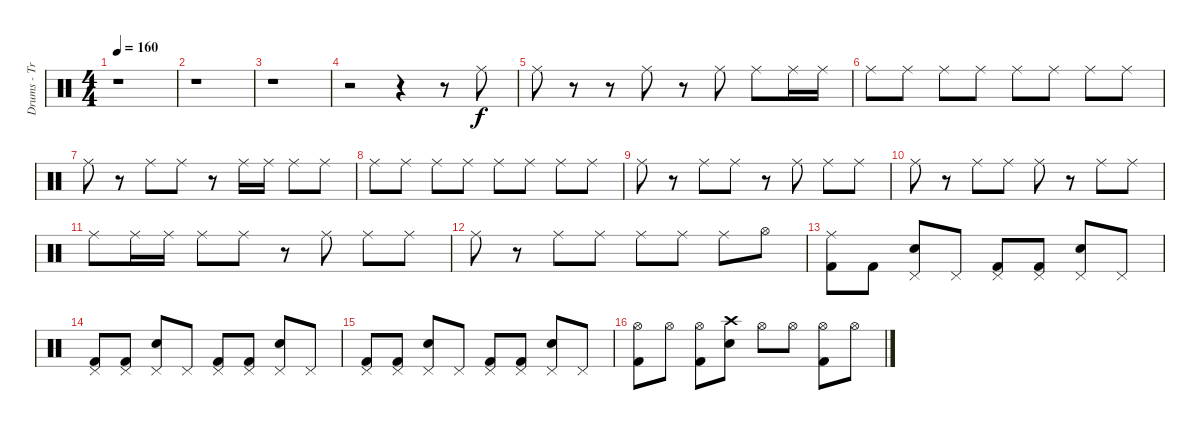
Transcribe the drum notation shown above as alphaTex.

\track ("Drums - Travis Barker" "Drums - Tr") {instrument percussion}
\staff {score}
\articulation defaults
\ts (4 4)
\tempo 160
\clef neutral
\ks c
r.1{dy f} |
r.1 |
r.1 |
r.2 r.4 r.8 "Ride (middle)".8 |
"Ride (middle)".8 r.8 r.8 "Ride (middle)".8 r.8 "Ride (middle)".8 "Ride (middle)".8 "Ride (middle)".16 "Ride (middle)".16 |
"Ride (middle)".8 "Ride (middle)".8 "Ride (middle)".8 "Ride (middle)".8 "Ride (middle)".8 "Ride (middle)".8 "Ride (middle)".8 "Ride (middle)".8 |
"Ride (middle)".8 r.8 "Ride (middle)".8 "Ride (middle)".8 r.8 "Ride (middle)".16 "Ride (middle)".16 "Ride (middle)".8 "Ride (middle)".8 |
"Ride (middle)".8 "Ride (middle)".8 "Ride (middle)".8 "Ride (middle)".8 "Ride (middle)".8 "Ride (middle)".8 "Ride (middle)".8 "Ride (middle)".8 |
"Ride (middle)".8 r.8 "Ride (middle)".8 "Ride (middle)".8 r.8 "Ride (middle)".8 "Ride (middle)".8 "Ride (middle)".8 |
"Ride (middle)".8 r.8 "Ride (middle)".8 "Ride (middle)".8 "Ride (middle)".8 r.8 "Ride (middle)".8 "Ride (middle)".8 |
"Ride (middle)".8 "Ride (middle)".16 "Ride (middle)".16 "Ride (middle)".8 "Ride (middle)".8 r.8 "Ride (middle)".8 "Ride (middle)".8 "Ride (middle)".8 |
"Ride (middle)".8 r.8 "Ride (middle)".8 "Ride (middle)".8 "Ride (middle)".8 "Ride (middle)".8 "Ride (middle)".8 "Hi-Hat (open)".8 |
("Ride (middle)" "Kick (hit) 2").8 "Kick (hit) 2".8 ("Pedal Hi-Hat (hit)" "Snare (hit) 2").8 "Pedal Hi-Hat (hit)".8 ("Pedal Hi-Hat (hit)" "Kick (hit) 2").8 ("Pedal Hi-Hat (hit)" "Kick (hit) 2").8 ("Pedal Hi-Hat (hit)" "Snare (hit) 2").8 "Pedal Hi-Hat (hit)".8 |
("Pedal Hi-Hat (hit)" "Kick (hit) 2").8 ("Pedal Hi-Hat (hit)" "Kick (hit) 2").8 ("Pedal Hi-Hat (hit)" "Snare (hit) 2").8 "Pedal Hi-Hat (hit)".8 ("Pedal Hi-Hat (hit)" "Kick (hit) 2").8 ("Pedal Hi-Hat (hit)" "Kick (hit) 2").8 ("Pedal Hi-Hat (hit)" "Snare (hit) 2").8 "Pedal Hi-Hat (hit)".8 |
("Pedal Hi-Hat (hit)" "Kick (hit) 2").8 ("Pedal Hi-Hat (hit)" "Kick (hit) 2").8 ("Pedal Hi-Hat (hit)" "Snare (hit) 2").8 "Pedal Hi-Hat (hit)".8 ("Pedal Hi-Hat (hit)" "Kick (hit) 2").8 ("Pedal Hi-Hat (hit)" "Kick (hit) 2").8 ("Pedal Hi-Hat (hit)" "Snare (hit) 2").8 "Pedal Hi-Hat (hit)".8 |
("Hi-Hat (open)" "Kick (hit) 2").8 "Hi-Hat (open)".8 ("Hi-Hat (open)" "Kick (hit) 2").8 ("Crash high (hit)" "Snare (hit) 2").8 "Hi-Hat (open)".8 "Hi-Hat (open)".8 ("Hi-Hat (open)" "Kick (hit) 2").8 "Hi-Hat (open)".8
